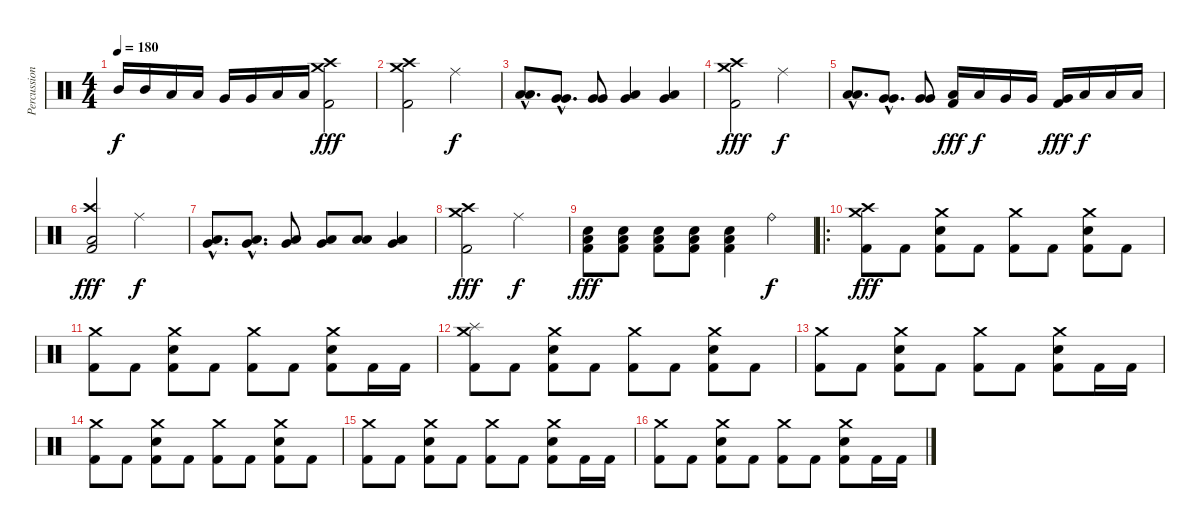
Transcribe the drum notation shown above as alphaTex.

\track ("Percussion (Francisco Izquierdo)" "Percussion") {instrument percussion}
\staff {score}
\articulation defaults
\ts (4 4)
\tempo 180
\clef neutral
\ks c "Mid Tom (hit)".16{dy f} "Mid Tom (hit)".16 "Low Tom (hit)".16 "Low Tom (hit)".16 "Very Low Tom (hit)".16 "Very Low Tom (hit)".16 "Low Floor Tom (hit)".16 "Low Floor Tom (hit)".16
("Crash high (hit)" "Crash medium (hit)" "Kick (hit) 2").2{dy fff} |
("Crash high (hit)" "Crash medium (hit)" "Kick (hit) 2").2 "Ride (middle)".2{dy f} |
("Low Tom (hit)"{hac} "Low Tom (hit)"{hac}).8{d} ("Very Low Tom (hit)"{hac} "Very Low Tom (hit)"{hac}).8{d} ("Very Low Tom (hit)" "Very Low Tom (hit)").8 ("Low Tom (hit)" "Very Low Tom (hit)").4 ("Very Low Tom (hit)" "Low Floor Tom (hit)").4 |
("Crash high (hit)" "Crash medium (hit)" "Kick (hit) 2").2{dy fff} "Ride (middle)".2{dy f} |
("Low Tom (hit)"{hac} "Low Tom (hit)"{hac}).8{d} ("Very Low Tom (hit)"{hac} "Very Low Tom (hit)"{hac}).8{d} ("Very Low Tom (hit)" "Very Low Tom (hit)").8 ("Low Tom (hit)" "Kick (hit) 2").16{dy fff} "Low Tom (hit)".16{dy f} "Very Low Tom (hit)".16 "Very Low Tom (hit)".16 ("Very Low Tom (hit)" "Kick (hit) 2").16{dy fff} "Low Floor Tom (hit)".16{dy f} "Low Floor Tom (hit)".16 "Low Floor Tom (hit)".16 |
("Crash high (hit)" "Low Tom (hit)" "Kick (hit) 2").2{dy fff} "Ride (middle)".2{dy f} |
("Very Low Tom (hit)"{hac} "Low Tom (hit)"{hac}).8{d} ("Low Floor Tom (hit)"{hac} "Very Low Tom (hit)"{hac}).8{d} ("Low Floor Tom (hit)" "Very Low Tom (hit)").8 ("Low Tom (hit)" "Very Low Tom (hit)").8 ("Low Tom (hit)" "Low Floor Tom (hit)").8 ("Very Low Tom (hit)" "Low Floor Tom (hit)").4 |
("Crash high (hit)" "Crash medium (hit)" "Kick (hit) 2").2{dy fff} "Ride (middle)".2{dy f} |
("Low Floor Tom (hit)" "Electric Snare (hit)" "Kick (hit) 2").8{dy fff} ("Low Floor Tom (hit)" "Electric Snare (hit)" "Kick (hit) 2").8 ("Low Floor Tom (hit)" "Electric Snare (hit)" "Kick (hit) 2").8 ("Low Floor Tom (hit)" "Electric Snare (hit)" "Kick (hit) 2").8 ("Low Floor Tom (hit)" "Electric Snare (hit)" "Kick (hit) 2").4 "Ride (bell)".4{dy f} |
\ro
("Crash medium (hit)" "Crash high (hit)" "Kick (hit) 2").8{dy fff} "Kick (hit) 2".8 ("Crash medium (hit)" "Electric Snare (hit)" "Kick (hit) 2").8 "Kick (hit) 2".8 ("Crash medium (hit)" "Kick (hit) 2").8 "Kick (hit) 2".8 ("Crash medium (hit)" "Electric Snare (hit)" "Kick (hit) 2").8 "Kick (hit) 2".8 |
("Crash medium (hit)" "Kick (hit) 2").8 "Kick (hit) 2".8 ("Crash medium (hit)" "Electric Snare (hit)" "Kick (hit) 2").8 "Kick (hit) 2".8 ("Crash medium (hit)" "Kick (hit) 2").8 "Kick (hit) 2".8 ("Crash medium (hit)" "Electric Snare (hit)" "Kick (hit) 2").8 "Kick (hit) 2".16 "Kick (hit) 2".16 |
("Crash medium (hit)" "Splash (hit)" "Kick (hit) 2").8 "Kick (hit) 2".8 ("Crash medium (hit)" "Electric Snare (hit)" "Kick (hit) 2").8 "Kick (hit) 2".8 ("Crash medium (hit)" "Kick (hit) 2").8 "Kick (hit) 2".8 ("Crash medium (hit)" "Electric Snare (hit)" "Kick (hit) 2").8 "Kick (hit) 2".8 |
("Crash medium (hit)" "Kick (hit) 2").8 "Kick (hit) 2".8 ("Crash medium (hit)" "Electric Snare (hit)" "Kick (hit) 2").8 "Kick (hit) 2".8 ("Crash medium (hit)" "Kick (hit) 2").8 "Kick (hit) 2".8 ("Crash medium (hit)" "Electric Snare (hit)" "Kick (hit) 2").8 "Kick (hit) 2".16 "Kick (hit) 2".16 |
("Crash medium (hit)" "Kick (hit) 2").8 "Kick (hit) 2".8 ("Crash medium (hit)" "Electric Snare (hit)" "Kick (hit) 2").8 "Kick (hit) 2".8 ("Crash medium (hit)" "Kick (hit) 2").8 "Kick (hit) 2".8 ("Crash medium (hit)" "Electric Snare (hit)" "Kick (hit) 2").8 "Kick (hit) 2".8 |
("Crash medium (hit)" "Kick (hit) 2").8 "Kick (hit) 2".8 ("Crash medium (hit)" "Electric Snare (hit)" "Kick (hit) 2").8 "Kick (hit) 2".8 ("Crash medium (hit)" "Kick (hit) 2").8 "Kick (hit) 2".8 ("Crash medium (hit)" "Electric Snare (hit)" "Kick (hit) 2").8 "Kick (hit) 2".16 "Kick (hit) 2".16 |
("Crash medium (hit)" "Kick (hit) 2").8 "Kick (hit) 2".8 ("Crash medium (hit)" "Electric Snare (hit)" "Kick (hit) 2").8 "Kick (hit) 2".8 ("Crash medium (hit)" "Kick (hit) 2").8 "Kick (hit) 2".8 ("Crash medium (hit)" "Electric Snare (hit)" "Kick (hit) 2").8 "Kick (hit) 2".16 "Kick (hit) 2".16
